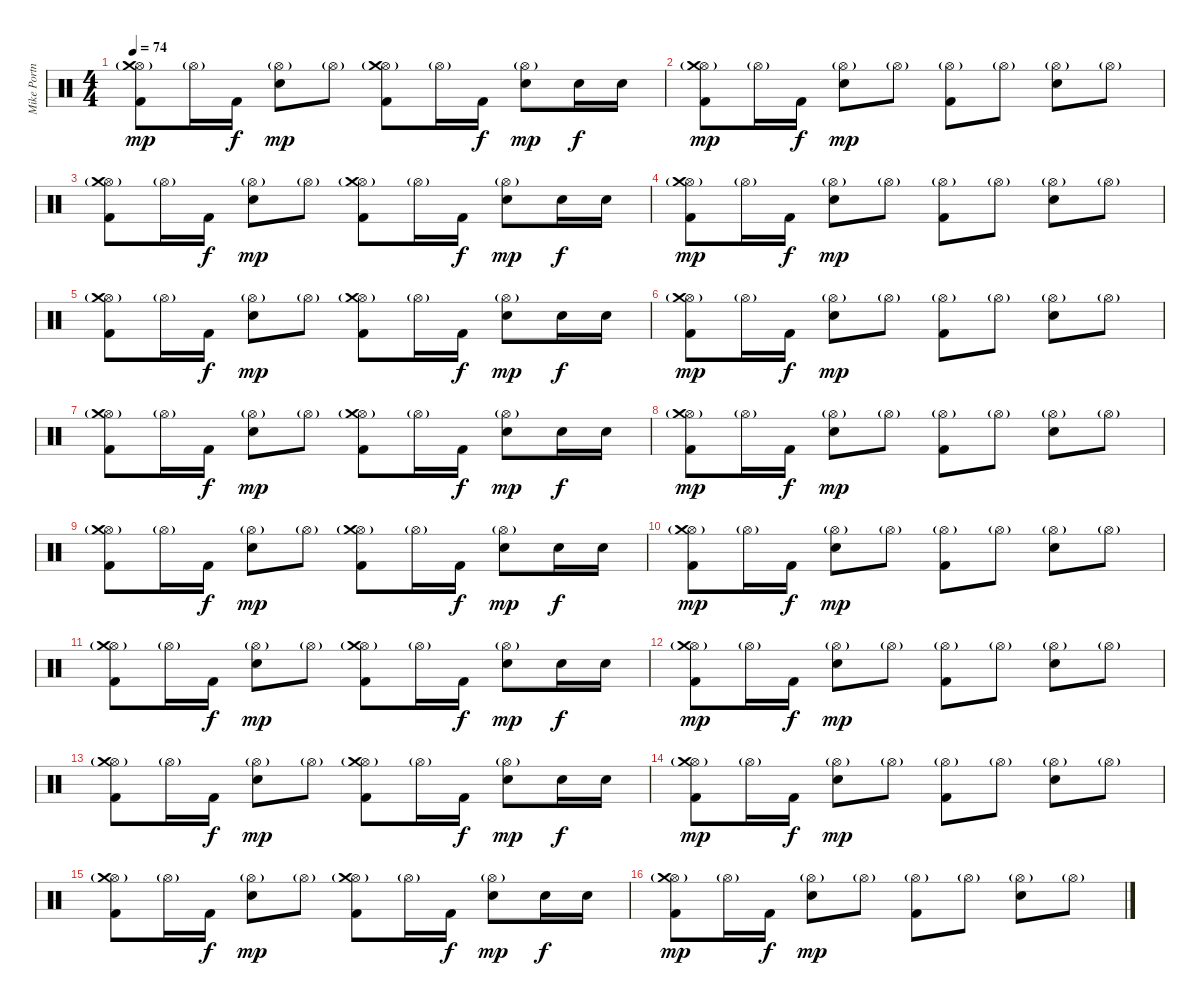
\track ("Mike Portnoy" "Mike Portn") {instrument percussion}
\staff {score}
\articulation defaults
\ts (4 4)
\tempo 74
\clef neutral
\ks c
("Hi-Hat (open)"{g} "Crash medium (hit)" "Kick (hit) 2").8{dy mp} "Hi-Hat (open)"{g}.16 "Kick (hit) 2".16{dy f} ("Hi-Hat (open)"{g} "Electric Snare (hit)").8{dy mp} "Hi-Hat (open)"{g}.8 ("Hi-Hat (open)"{g} "Crash medium (hit)" "Kick (hit) 2").8 "Hi-Hat (open)"{g}.16 "Kick (hit) 2".16{dy f} ("Hi-Hat (open)"{g} "Electric Snare (hit)").8{dy mp} "Electric Snare (hit)".16{dy f} "Electric Snare (hit)".16 |
("Hi-Hat (open)"{g} "Crash medium (hit)" "Kick (hit) 2").8{dy mp} "Hi-Hat (open)"{g}.16 "Kick (hit) 2".16{dy f} ("Hi-Hat (open)"{g} "Electric Snare (hit)").8{dy mp} "Hi-Hat (open)"{g}.8 ("Hi-Hat (open)"{g} "Kick (hit) 2").8 "Hi-Hat (open)"{g}.8 ("Hi-Hat (open)"{g} "Electric Snare (hit)").8 "Hi-Hat (open)"{g}.8 |
("Hi-Hat (open)"{g} "Crash medium (hit)" "Kick (hit) 2").8 "Hi-Hat (open)"{g}.16 "Kick (hit) 2".16{dy f} ("Hi-Hat (open)"{g} "Electric Snare (hit)").8{dy mp} "Hi-Hat (open)"{g}.8 ("Hi-Hat (open)"{g} "Crash medium (hit)" "Kick (hit) 2").8 "Hi-Hat (open)"{g}.16 "Kick (hit) 2".16{dy f} ("Hi-Hat (open)"{g} "Electric Snare (hit)").8{dy mp} "Electric Snare (hit)".16{dy f} "Electric Snare (hit)".16 |
("Hi-Hat (open)"{g} "Crash medium (hit)" "Kick (hit) 2").8{dy mp} "Hi-Hat (open)"{g}.16 "Kick (hit) 2".16{dy f} ("Hi-Hat (open)"{g} "Electric Snare (hit)").8{dy mp} "Hi-Hat (open)"{g}.8 ("Hi-Hat (open)"{g} "Kick (hit) 2").8 "Hi-Hat (open)"{g}.8 ("Hi-Hat (open)"{g} "Electric Snare (hit)").8 "Hi-Hat (open)"{g}.8 |
("Hi-Hat (open)"{g} "Crash medium (hit)" "Kick (hit) 2").8 "Hi-Hat (open)"{g}.16 "Kick (hit) 2".16{dy f} ("Hi-Hat (open)"{g} "Electric Snare (hit)").8{dy mp} "Hi-Hat (open)"{g}.8 ("Hi-Hat (open)"{g} "Crash medium (hit)" "Kick (hit) 2").8 "Hi-Hat (open)"{g}.16 "Kick (hit) 2".16{dy f} ("Hi-Hat (open)"{g} "Electric Snare (hit)").8{dy mp} "Electric Snare (hit)".16{dy f} "Electric Snare (hit)".16 |
("Hi-Hat (open)"{g} "Crash medium (hit)" "Kick (hit) 2").8{dy mp} "Hi-Hat (open)"{g}.16 "Kick (hit) 2".16{dy f} ("Hi-Hat (open)"{g} "Electric Snare (hit)").8{dy mp} "Hi-Hat (open)"{g}.8 ("Hi-Hat (open)"{g} "Kick (hit) 2").8 "Hi-Hat (open)"{g}.8 ("Hi-Hat (open)"{g} "Electric Snare (hit)").8 "Hi-Hat (open)"{g}.8 |
("Hi-Hat (open)"{g} "Crash medium (hit)" "Kick (hit) 2").8 "Hi-Hat (open)"{g}.16 "Kick (hit) 2".16{dy f} ("Hi-Hat (open)"{g} "Electric Snare (hit)").8{dy mp} "Hi-Hat (open)"{g}.8 ("Hi-Hat (open)"{g} "Crash medium (hit)" "Kick (hit) 2").8 "Hi-Hat (open)"{g}.16 "Kick (hit) 2".16{dy f} ("Hi-Hat (open)"{g} "Electric Snare (hit)").8{dy mp} "Electric Snare (hit)".16{dy f} "Electric Snare (hit)".16 |
("Hi-Hat (open)"{g} "Crash medium (hit)" "Kick (hit) 2").8{dy mp} "Hi-Hat (open)"{g}.16 "Kick (hit) 2".16{dy f} ("Hi-Hat (open)"{g} "Electric Snare (hit)").8{dy mp} "Hi-Hat (open)"{g}.8 ("Hi-Hat (open)"{g} "Kick (hit) 2").8 "Hi-Hat (open)"{g}.8 ("Hi-Hat (open)"{g} "Electric Snare (hit)").8 "Hi-Hat (open)"{g}.8 |
("Hi-Hat (open)"{g} "Crash medium (hit)" "Kick (hit) 2").8 "Hi-Hat (open)"{g}.16 "Kick (hit) 2".16{dy f} ("Hi-Hat (open)"{g} "Electric Snare (hit)").8{dy mp} "Hi-Hat (open)"{g}.8 ("Hi-Hat (open)"{g} "Crash medium (hit)" "Kick (hit) 2").8 "Hi-Hat (open)"{g}.16 "Kick (hit) 2".16{dy f} ("Hi-Hat (open)"{g} "Electric Snare (hit)").8{dy mp} "Electric Snare (hit)".16{dy f} "Electric Snare (hit)".16 |
("Hi-Hat (open)"{g} "Crash medium (hit)" "Kick (hit) 2").8{dy mp} "Hi-Hat (open)"{g}.16 "Kick (hit) 2".16{dy f} ("Hi-Hat (open)"{g} "Electric Snare (hit)").8{dy mp} "Hi-Hat (open)"{g}.8 ("Hi-Hat (open)"{g} "Kick (hit) 2").8 "Hi-Hat (open)"{g}.8 ("Hi-Hat (open)"{g} "Electric Snare (hit)").8 "Hi-Hat (open)"{g}.8 |
("Hi-Hat (open)"{g} "Crash medium (hit)" "Kick (hit) 2").8 "Hi-Hat (open)"{g}.16 "Kick (hit) 2".16{dy f} ("Hi-Hat (open)"{g} "Electric Snare (hit)").8{dy mp} "Hi-Hat (open)"{g}.8 ("Hi-Hat (open)"{g} "Crash medium (hit)" "Kick (hit) 2").8 "Hi-Hat (open)"{g}.16 "Kick (hit) 2".16{dy f} ("Hi-Hat (open)"{g} "Electric Snare (hit)").8{dy mp} "Electric Snare (hit)".16{dy f} "Electric Snare (hit)".16 |
("Hi-Hat (open)"{g} "Crash medium (hit)" "Kick (hit) 2").8{dy mp} "Hi-Hat (open)"{g}.16 "Kick (hit) 2".16{dy f} ("Hi-Hat (open)"{g} "Electric Snare (hit)").8{dy mp} "Hi-Hat (open)"{g}.8 ("Hi-Hat (open)"{g} "Kick (hit) 2").8 "Hi-Hat (open)"{g}.8 ("Hi-Hat (open)"{g} "Electric Snare (hit)").8 "Hi-Hat (open)"{g}.8 |
("Hi-Hat (open)"{g} "Crash medium (hit)" "Kick (hit) 2").8 "Hi-Hat (open)"{g}.16 "Kick (hit) 2".16{dy f} ("Hi-Hat (open)"{g} "Electric Snare (hit)").8{dy mp} "Hi-Hat (open)"{g}.8 ("Hi-Hat (open)"{g} "Crash medium (hit)" "Kick (hit) 2").8 "Hi-Hat (open)"{g}.16 "Kick (hit) 2".16{dy f} ("Hi-Hat (open)"{g} "Electric Snare (hit)").8{dy mp} "Electric Snare (hit)".16{dy f} "Electric Snare (hit)".16 |
("Hi-Hat (open)"{g} "Crash medium (hit)" "Kick (hit) 2").8{dy mp} "Hi-Hat (open)"{g}.16 "Kick (hit) 2".16{dy f} ("Hi-Hat (open)"{g} "Electric Snare (hit)").8{dy mp} "Hi-Hat (open)"{g}.8 ("Hi-Hat (open)"{g} "Kick (hit) 2").8 "Hi-Hat (open)"{g}.8 ("Hi-Hat (open)"{g} "Electric Snare (hit)").8 "Hi-Hat (open)"{g}.8 |
("Hi-Hat (open)"{g} "Crash medium (hit)" "Kick (hit) 2").8 "Hi-Hat (open)"{g}.16 "Kick (hit) 2".16{dy f} ("Hi-Hat (open)"{g} "Electric Snare (hit)").8{dy mp} "Hi-Hat (open)"{g}.8 ("Hi-Hat (open)"{g} "Crash medium (hit)" "Kick (hit) 2").8 "Hi-Hat (open)"{g}.16 "Kick (hit) 2".16{dy f} ("Hi-Hat (open)"{g} "Electric Snare (hit)").8{dy mp} "Electric Snare (hit)".16{dy f} "Electric Snare (hit)".16 |
("Hi-Hat (open)"{g} "Crash medium (hit)" "Kick (hit) 2").8{dy mp} "Hi-Hat (open)"{g}.16 "Kick (hit) 2".16{dy f} ("Hi-Hat (open)"{g} "Electric Snare (hit)").8{dy mp} "Hi-Hat (open)"{g}.8 ("Hi-Hat (open)"{g} "Kick (hit) 2").8 "Hi-Hat (open)"{g}.8 ("Hi-Hat (open)"{g} "Electric Snare (hit)").8 "Hi-Hat (open)"{g}.8
